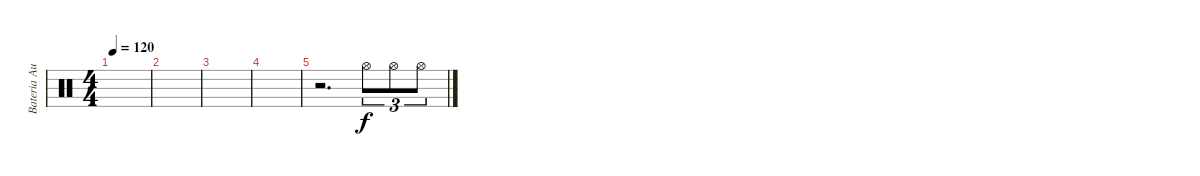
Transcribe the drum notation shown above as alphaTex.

\track ("Bateria Auxiliar" "Bateria Au") {instrument percussion}
\staff {score}
\articulation defaults
\ts (4 4)
\tempo 120
\clef neutral
\ks c
|
|
|
|
r.2{d} "Hi-Hat (open)".8{tu (3 2)} "Hi-Hat (open)".8{tu (3 2)} "Hi-Hat (open)".8{tu (3 2)}
